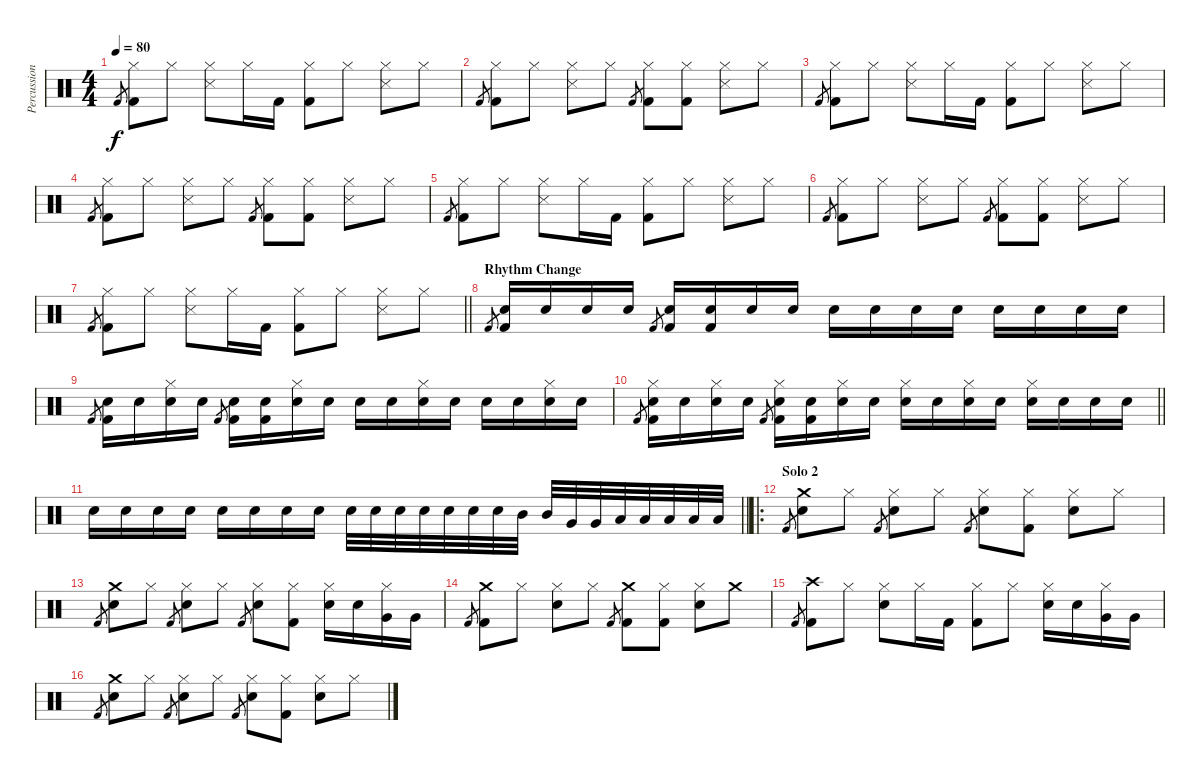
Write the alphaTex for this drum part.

\track ("Percussion" "Percussion") {instrument percussion}
\staff {score}
\articulation defaults
\ts (4 4)
\tempo 80
\clef neutral
\ks c "Kick (hit) 2".8{gr dy f}
("Hi-Hat (closed)" "Kick (hit) 2").8 "Hi-Hat (closed)".8 ("Hi-Hat (closed)" "Snare (side stick) 3").8 "Hi-Hat (closed)".16 "Kick (hit) 2".16 ("Hi-Hat (closed)" "Kick (hit) 2").8 "Hi-Hat (closed)".8 ("Hi-Hat (closed)" "Snare (side stick) 3").8 "Hi-Hat (closed)".8 |
"Kick (hit) 2".8{gr} ("Hi-Hat (closed)" "Kick (hit) 2").8 "Hi-Hat (closed)".8 ("Hi-Hat (closed)" "Snare (side stick) 3").8 "Hi-Hat (closed)".8 "Kick (hit) 2".8{gr} ("Hi-Hat (closed)" "Kick (hit) 2").8 ("Hi-Hat (closed)" "Kick (hit) 2").8 ("Hi-Hat (closed)" "Snare (side stick) 3").8 "Hi-Hat (closed)".8 |
"Kick (hit) 2".8{gr} ("Hi-Hat (closed)" "Kick (hit) 2").8 "Hi-Hat (closed)".8 ("Hi-Hat (closed)" "Snare (side stick) 3").8 "Hi-Hat (closed)".16 "Kick (hit) 2".16 ("Hi-Hat (closed)" "Kick (hit) 2").8 "Hi-Hat (closed)".8 ("Hi-Hat (closed)" "Snare (side stick) 3").8 "Hi-Hat (closed)".8 |
"Kick (hit) 2".8{gr} ("Hi-Hat (closed)" "Kick (hit) 2").8 "Hi-Hat (closed)".8 ("Hi-Hat (closed)" "Snare (side stick) 3").8 "Hi-Hat (closed)".8 "Kick (hit) 2".8{gr} ("Hi-Hat (closed)" "Kick (hit) 2").8 ("Hi-Hat (closed)" "Kick (hit) 2").8 ("Hi-Hat (closed)" "Snare (side stick) 3").8 "Hi-Hat (closed)".8 |
"Kick (hit) 2".8{gr} ("Hi-Hat (closed)" "Kick (hit) 2").8 "Hi-Hat (closed)".8 ("Hi-Hat (closed)" "Snare (side stick) 3").8 "Hi-Hat (closed)".16 "Kick (hit) 2".16 ("Hi-Hat (closed)" "Kick (hit) 2").8 "Hi-Hat (closed)".8 ("Hi-Hat (closed)" "Snare (side stick) 3").8 "Hi-Hat (closed)".8 |
"Kick (hit) 2".8{gr} ("Hi-Hat (closed)" "Kick (hit) 2").8 "Hi-Hat (closed)".8 ("Hi-Hat (closed)" "Snare (side stick) 3").8 "Hi-Hat (closed)".8 "Kick (hit) 2".8{gr} ("Hi-Hat (closed)" "Kick (hit) 2").8 ("Hi-Hat (closed)" "Kick (hit) 2").8 ("Hi-Hat (closed)" "Snare (side stick) 3").8 "Hi-Hat (closed)".8 |
\barLineRight lightlight "Kick (hit) 2".8{gr}
("Hi-Hat (closed)" "Kick (hit) 2").8 "Hi-Hat (closed)".8 ("Hi-Hat (closed)" "Snare (side stick) 3").8 "Hi-Hat (closed)".16 "Kick (hit) 2".16 ("Hi-Hat (closed)" "Kick (hit) 2").8 "Hi-Hat (closed)".8 ("Hi-Hat (closed)" "Snare (side stick) 3").8 "Hi-Hat (closed)".8 |
\section ("" "Rhythm Change")
"Kick (hit) 2".8{gr} ("Snare (hit) 2" "Kick (hit) 2").16 "Snare (hit) 2".16 "Snare (hit) 2".16 "Snare (hit) 2".16 "Kick (hit) 2".8{gr} ("Snare (hit) 2" "Kick (hit) 2").16 ("Snare (hit) 2" "Kick (hit) 2").16 "Snare (hit) 2".16 "Snare (hit) 2".16 "Snare (hit) 2".16 "Snare (hit) 2".16 "Snare (hit) 2".16 "Snare (hit) 2".16 "Snare (hit) 2".16 "Snare (hit) 2".16 "Snare (hit) 2".16 "Snare (hit) 2".16 |
"Kick (hit) 2".8{gr} ("Snare (hit) 2" "Kick (hit) 2").16 "Snare (hit) 2".16 ("Hi-Hat (closed)" "Snare (hit) 2").16 "Snare (hit) 2".16 "Kick (hit) 2".8{gr} ("Snare (hit) 2" "Kick (hit) 2").16 ("Snare (hit) 2" "Kick (hit) 2").16 ("Hi-Hat (closed)" "Snare (hit) 2").16 "Snare (hit) 2".16 "Snare (hit) 2".16 "Snare (hit) 2".16 ("Hi-Hat (closed)" "Snare (hit) 2").16 "Snare (hit) 2".16 "Snare (hit) 2".16 "Snare (hit) 2".16 ("Hi-Hat (closed)" "Snare (hit) 2").16 "Snare (hit) 2".16 |
\barLineRight lightlight "Kick (hit) 2".8{gr}
("Hi-Hat (closed)" "Snare (hit) 2" "Kick (hit) 2").16 "Snare (hit) 2".16 ("Hi-Hat (closed)" "Snare (hit) 2").16 "Snare (hit) 2".16 "Kick (hit) 2".8{gr} ("Hi-Hat (closed)" "Snare (hit) 2" "Kick (hit) 2").16 ("Snare (hit) 2" "Kick (hit) 2").16 ("Hi-Hat (closed)" "Snare (hit) 2").16 "Snare (hit) 2".16 ("Hi-Hat (closed)" "Snare (hit) 2").16 "Snare (hit) 2".16 ("Hi-Hat (closed)" "Snare (hit) 2").16 "Snare (hit) 2".16 ("Hi-Hat (closed)" "Snare (hit) 2").16 "Snare (hit) 2".16 "Snare (hit) 2".16 "Snare (hit) 2".16 |
\barLineRight lightlight "Snare (hit) 2".16 "Snare (hit) 2".16 "Snare (hit) 2".16 "Snare (hit) 2".16 "Snare (hit) 2".16 "Snare (hit) 2".16 "Snare (hit) 2".16 "Snare (hit) 2".16 "Snare (hit) 2".32 "Snare (hit) 2".32 "Snare (hit) 2".32 "Snare (hit) 2".32 "Snare (hit) 2".32 "Snare (hit) 2".32 "Snare (hit) 2".32 "Mid Tom (hit)".32 "Mid Tom (hit)".32 "Very Low Tom (hit)".32 "Very Low Tom (hit)".32 "Low Floor Tom (hit)".32 "Low Tom (hit)".32 "Low Tom (hit)".32 "Low Floor Tom (hit)".32 "Low Floor Tom (hit)".32
|
\ro
\section ("" "Solo 2")
"Kick (hit) 2".8{gr} ("Crash medium (hit)" "Snare (hit) 2").8 "Hi-Hat (closed)".8 "Kick (hit) 2".8{gr} ("Hi-Hat (closed)" "Snare (hit) 2").8 "Hi-Hat (closed)".8 "Kick (hit) 2".8{gr} ("Hi-Hat (closed)" "Snare (hit) 2").8 ("Hi-Hat (closed)" "Kick (hit) 2").8 ("Hi-Hat (closed)" "Snare (hit) 2").8 "Hi-Hat (closed)".8 |
"Kick (hit) 2".8{gr} ("Crash medium (hit)" "Snare (hit) 2").8 "Hi-Hat (closed)".8 "Kick (hit) 2".8{gr} ("Hi-Hat (closed)" "Snare (hit) 2").8 "Hi-Hat (closed)".8 "Kick (hit) 2".8{gr} ("Hi-Hat (closed)" "Snare (hit) 2").8 ("Hi-Hat (closed)" "Kick (hit) 2").8 ("Hi-Hat (closed)" "Snare (hit) 2").16 "Snare (hit) 2".16 ("Hi-Hat (closed)" "Very Low Tom (hit)").16 "Very Low Tom (hit)".16 |
"Kick (hit) 2".8{gr} ("Crash medium (hit)" "Kick (hit) 2").8 "Hi-Hat (closed)".8 ("Hi-Hat (closed)" "Snare (hit) 2").8 "Hi-Hat (closed)".8 "Kick (hit) 2".8{gr} ("Crash medium (hit)" "Kick (hit) 2").8 ("Hi-Hat (closed)" "Kick (hit) 2").8 ("Hi-Hat (closed)" "Snare (hit) 2").8 "Crash medium (hit)".8 |
"Kick (hit) 2".8{gr} ("Crash high (hit)" "Kick (hit) 2").8 "Hi-Hat (closed)".8 ("Hi-Hat (closed)" "Snare (hit) 2").8 "Hi-Hat (closed)".16 "Kick (hit) 2".16 ("Hi-Hat (closed)" "Kick (hit) 2").8 "Hi-Hat (closed)".8 ("Hi-Hat (closed)" "Snare (hit) 2").16 "Snare (hit) 2".16 ("Hi-Hat (closed)" "Very Low Tom (hit)").16 "Very Low Tom (hit)".16 |
"Kick (hit) 2".8{gr} ("Crash medium (hit)" "Snare (hit) 2").8 "Hi-Hat (closed)".8 "Kick (hit) 2".8{gr} ("Hi-Hat (closed)" "Snare (hit) 2").8 "Hi-Hat (closed)".8 "Kick (hit) 2".8{gr} ("Hi-Hat (closed)" "Snare (hit) 2").8 ("Hi-Hat (closed)" "Kick (hit) 2").8 ("Hi-Hat (closed)" "Snare (hit) 2").8 "Hi-Hat (closed)".8
